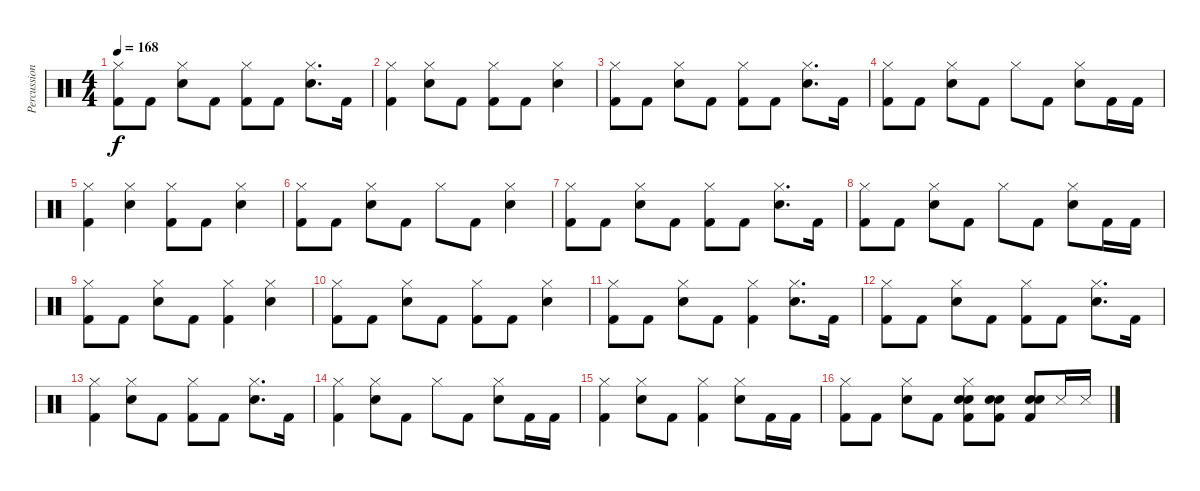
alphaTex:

\track ("Percussion" "Percussion") {instrument percussion}
\staff {score}
\articulation defaults
\ts (4 4)
\tempo 168
\clef neutral
\ks c
("Hi-Hat (closed)" "Kick (hit) 2").8{dy f} "Kick (hit) 2".8 ("Snare (hit) 2" "Hi-Hat (closed)").8 "Kick (hit) 2".8 ("Kick (hit) 2" "Hi-Hat (closed)").8 "Kick (hit) 2".8 ("Snare (hit) 2" "Hi-Hat (closed)").8{d} "Kick (hit) 2".16 |
("Kick (hit) 2" "Hi-Hat (closed)").4 ("Snare (hit) 2" "Hi-Hat (closed)").8 "Kick (hit) 2".8 ("Kick (hit) 2" "Hi-Hat (closed)").8 "Kick (hit) 2".8 ("Snare (hit) 2" "Hi-Hat (closed)").4 |
("Hi-Hat (closed)" "Kick (hit) 2").8 "Kick (hit) 2".8 ("Snare (hit) 2" "Hi-Hat (closed)").8 "Kick (hit) 2".8 ("Kick (hit) 2" "Hi-Hat (closed)").8 "Kick (hit) 2".8 ("Snare (hit) 2" "Hi-Hat (closed)").8{d} "Kick (hit) 2".16 |
("Kick (hit) 2" "Hi-Hat (closed)").8 "Kick (hit) 2".8 ("Snare (hit) 2" "Hi-Hat (closed)").8 "Kick (hit) 2".8 "Hi-Hat (closed)".8 "Kick (hit) 2".8 ("Snare (hit) 2" "Hi-Hat (closed)").8 "Kick (hit) 2".16 "Kick (hit) 2".16 |
("Kick (hit) 2" "Hi-Hat (closed)").4 ("Snare (hit) 2" "Hi-Hat (closed)").4 ("Kick (hit) 2" "Hi-Hat (closed)").8 "Kick (hit) 2".8 ("Snare (hit) 2" "Hi-Hat (closed)").4 |
("Kick (hit) 2" "Hi-Hat (closed)").8 "Kick (hit) 2".8 ("Snare (hit) 2" "Hi-Hat (closed)").8 "Kick (hit) 2".8 "Hi-Hat (closed)".8 "Kick (hit) 2".8 ("Snare (hit) 2" "Hi-Hat (closed)").4 |
("Kick (hit) 2" "Hi-Hat (closed)").8 "Kick (hit) 2".8 ("Snare (hit) 2" "Hi-Hat (closed)").8 "Kick (hit) 2".8 ("Kick (hit) 2" "Hi-Hat (closed)").8 "Kick (hit) 2".8 ("Snare (hit) 2" "Hi-Hat (closed)").8{d} "Kick (hit) 2".16 |
("Kick (hit) 2" "Hi-Hat (closed)").8 "Kick (hit) 2".8 ("Snare (hit) 2" "Hi-Hat (closed)").8 "Kick (hit) 2".8 "Hi-Hat (closed)".8 "Kick (hit) 2".8 ("Snare (hit) 2" "Hi-Hat (closed)").8 "Kick (hit) 2".16 "Kick (hit) 2".16 |
("Kick (hit) 2" "Hi-Hat (closed)").8 "Kick (hit) 2".8 ("Snare (hit) 2" "Hi-Hat (closed)").8 "Kick (hit) 2".8 ("Kick (hit) 2" "Hi-Hat (closed)").4 ("Snare (hit) 2" "Hi-Hat (closed)").4 |
("Kick (hit) 2" "Hi-Hat (closed)").8 "Kick (hit) 2".8 ("Snare (hit) 2" "Hi-Hat (closed)").8 "Kick (hit) 2".8 ("Kick (hit) 2" "Hi-Hat (closed)").8 "Kick (hit) 2".8 ("Snare (hit) 2" "Hi-Hat (closed)").4 |
("Kick (hit) 2" "Hi-Hat (closed)").8 "Kick (hit) 2".8 ("Snare (hit) 2" "Hi-Hat (closed)").8 "Kick (hit) 2".8 ("Kick (hit) 2" "Hi-Hat (closed)").4 ("Snare (hit) 2" "Hi-Hat (closed)").8{d} "Kick (hit) 2".16 |
("Kick (hit) 2" "Hi-Hat (closed)").8 "Kick (hit) 2".8 ("Snare (hit) 2" "Hi-Hat (closed)").8 "Kick (hit) 2".8 ("Kick (hit) 2" "Hi-Hat (closed)").8 "Kick (hit) 2".8 ("Snare (hit) 2" "Hi-Hat (closed)").8{d} "Kick (hit) 2".16 |
("Kick (hit) 2" "Hi-Hat (closed)").4 ("Snare (hit) 2" "Hi-Hat (closed)").8 "Kick (hit) 2".8 ("Kick (hit) 2" "Hi-Hat (closed)").8 "Kick (hit) 2".8 ("Snare (hit) 2" "Hi-Hat (closed)").8{d} "Kick (hit) 2".16 |
("Kick (hit) 2" "Hi-Hat (closed)").4 ("Snare (hit) 2" "Hi-Hat (closed)").8 "Kick (hit) 2".8 "Hi-Hat (closed)".8 "Kick (hit) 2".8 ("Snare (hit) 2" "Hi-Hat (closed)").8 "Kick (hit) 2".16 "Kick (hit) 2".16 |
("Kick (hit) 2" "Hi-Hat (closed)").4 ("Snare (hit) 2" "Hi-Hat (closed)").8 "Kick (hit) 2".8 ("Kick (hit) 2" "Hi-Hat (closed)").4 ("Snare (hit) 2" "Hi-Hat (closed)").8 "Kick (hit) 2".16 "Kick (hit) 2".16 |
("Kick (hit) 2" "Hi-Hat (closed)").8 "Kick (hit) 2".8 ("Snare (hit) 2" "Hi-Hat (closed)").8 "Kick (hit) 2".8 ("Snare (hit) 2" "Hi-Hat (closed)" "Hand Clap (hit)" "Kick (hit) 2").8 ("Kick (hit) 2" "Snare (hit) 2" "Hand Clap (hit)").8 ("Kick (hit) 2" "Snare (hit) 2" "Hand Clap (hit)").8 "Snare (side stick) 3".16 "Snare (side stick) 3".16
